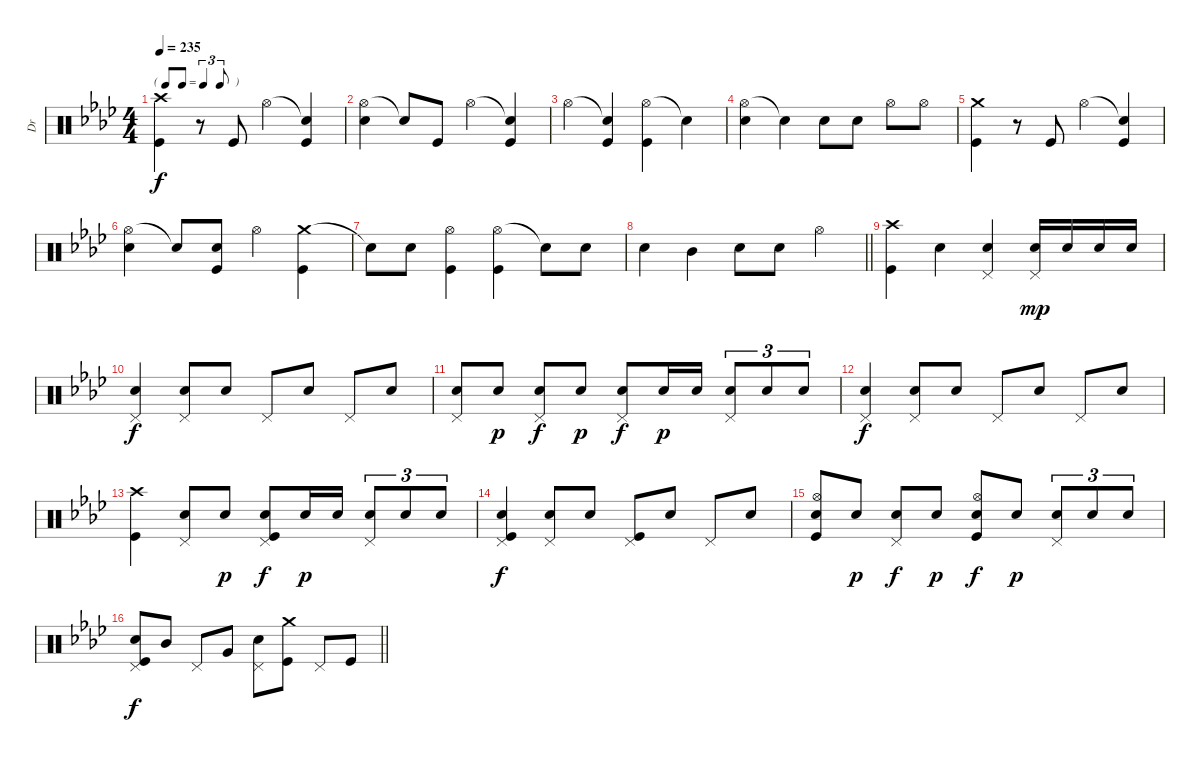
\track ("Dr" "Dr") {instrument percussion}
\staff {score}
\articulation defaults
\ts (4 4)
\tf triplet8th
\tempo 235
\clef neutral
\ks ab
("Crash high (hit)" "Kick (hit)").4{dy f} r.8 "Kick (hit)".8 "Hi-Hat (open)".4 ("Snare (hit)"{t} "Kick (hit)").4 |
("Hi-Hat (open)" "Electric Snare (hit)").4 "Snare (hit)"{t}.8 "Kick (hit)".8 "Hi-Hat (open)".4 ("Snare (hit)"{t} "Kick (hit)").4 |
"Hi-Hat (open)".4 ("Snare (hit)"{t} "Kick (hit)").4 ("Hi-Hat (open)" "Kick (hit)").4 "Snare (hit)"{t}.4 |
("Hi-Hat (open)" "Electric Snare (hit)").4 "Snare (hit)"{t}.4 "Electric Snare (hit)".8 "Electric Snare (hit)".8 "Hi-Hat (open)".8 "Hi-Hat (open)".8 |
("Crash medium (hit)" "Kick (hit)").4 r.8 "Kick (hit)".8 "Hi-Hat (open)".4 ("Snare (hit)"{t} "Kick (hit)").4 |
("Hi-Hat (open)" "Electric Snare (hit)").4 "Snare (hit)"{t}.8 ("Electric Snare (hit)" "Kick (hit)").8 "Hi-Hat (open)".4 ("Crash medium (hit)" "Kick (hit)").4 |
"Snare (hit)"{t}.8 "Electric Snare (hit)".8 ("Hi-Hat (open)" "Kick (hit)").4 ("Hi-Hat (open)" "Kick (hit)").4 "Snare (hit)"{t}.8 "Electric Snare (hit)".8 |
\barLineRight lightlight "Electric Snare (hit)".4 "Mid Tom (hit)".4 "Electric Snare (hit)".8 "Electric Snare (hit)".8 "Hi-Hat (open)".4
|
\section ("" "")
("Crash high (hit)" "Kick (hit)").4 "Electric Snare (hit)".4 ("Electric Snare (hit)" "Pedal Hi-Hat (hit)").4 ("Electric Snare (hit)" "Pedal Hi-Hat (hit)").16{dy mp} "Electric Snare (hit)".16 "Electric Snare (hit)".16 "Electric Snare (hit)".16 |
("Electric Snare (hit)" "Pedal Hi-Hat (hit)").4{dy f} ("Electric Snare (hit)" "Pedal Hi-Hat (hit)").8 "Electric Snare (hit)".8 "Pedal Hi-Hat (hit)".8 "Electric Snare (hit)".8 "Pedal Hi-Hat (hit)".8 "Electric Snare (hit)".8 |
("Electric Snare (hit)" "Pedal Hi-Hat (hit)").8 "Electric Snare (hit)".8{dy p} ("Electric Snare (hit)" "Pedal Hi-Hat (hit)").8{dy f} "Electric Snare (hit)".8{dy p} ("Electric Snare (hit)" "Pedal Hi-Hat (hit)").8{dy f} "Electric Snare (hit)".16{dy p} "Electric Snare (hit)".16 ("Electric Snare (hit)" "Pedal Hi-Hat (hit)").8{tu (3 2)} "Electric Snare (hit)".8{tu (3 2)} "Electric Snare (hit)".8{tu (3 2)} |
("Electric Snare (hit)" "Pedal Hi-Hat (hit)").4{dy f} ("Electric Snare (hit)" "Pedal Hi-Hat (hit)").8 "Electric Snare (hit)".8 "Pedal Hi-Hat (hit)".8 "Electric Snare (hit)".8 "Pedal Hi-Hat (hit)".8 "Electric Snare (hit)".8 |
("Crash high (hit)" "Kick (hit)").4 ("Electric Snare (hit)" "Pedal Hi-Hat (hit)").8 "Electric Snare (hit)".8{dy p} ("Electric Snare (hit)" "Kick (hit)" "Pedal Hi-Hat (hit)").8{dy f} "Electric Snare (hit)".16{dy p} "Electric Snare (hit)".16 ("Electric Snare (hit)" "Pedal Hi-Hat (hit)").8{tu (3 2)} "Electric Snare (hit)".8{tu (3 2)} "Electric Snare (hit)".8{tu (3 2)} |
("Electric Snare (hit)" "Kick (hit)" "Pedal Hi-Hat (hit)").4{dy f} ("Electric Snare (hit)" "Pedal Hi-Hat (hit)").8 "Electric Snare (hit)".8 ("Kick (hit)" "Pedal Hi-Hat (hit)").8 "Electric Snare (hit)".8 "Pedal Hi-Hat (hit)".8 "Electric Snare (hit)".8 |
("Electric Snare (hit)" "Kick (hit)" "Hi-Hat (open)").8 "Electric Snare (hit)".8{dy p} ("Electric Snare (hit)" "Pedal Hi-Hat (hit)").8{dy f} "Electric Snare (hit)".8{dy p} ("Electric Snare (hit)" "Kick (hit)" "Hi-Hat (open)").8{dy f} "Electric Snare (hit)".8{dy p} ("Electric Snare (hit)" "Pedal Hi-Hat (hit)").8{tu (3 2)} "Electric Snare (hit)".8{tu (3 2)} "Electric Snare (hit)".8{tu (3 2)} |
\barLineRight lightlight
("Electric Snare (hit)" "Kick (hit)" "Pedal Hi-Hat (hit)").8{dy f} "Mid Tom (hit)".8 "Pedal Hi-Hat (hit)".8 "Very Low Tom (hit)".8 ("Electric Snare (hit)" "Pedal Hi-Hat (hit)").8 ("Crash medium (hit)" "Kick (hit)").8 "Pedal Hi-Hat (hit)".8 "Kick (hit)".8
